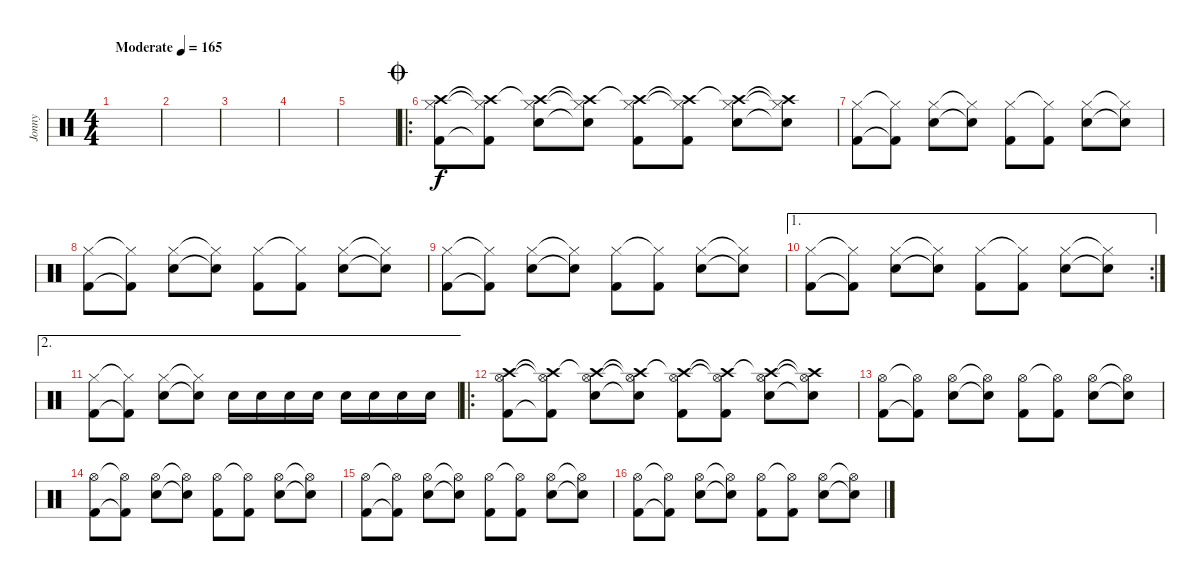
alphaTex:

\track ("Jonny" "Jonny") {instrument percussion}
\staff {score}
\articulation defaults
\ts (4 4)
\tempo (165 "Moderate")
\clef neutral
\ks c
|
|
|
|
|
\ro
\jump coda
("Crash high (hit)" "Hi-Hat (closed)" "Kick (hit) 2").8 ("Crash high (hit)"{t} "Hi-Hat (closed)"{t} "Kick (hit) 2"{t}).8 ("Crash high (hit)"{t} "Hi-Hat (closed)" "Snare (hit) 2").8 ("Crash high (hit)"{t} "Hi-Hat (closed)"{t} "Snare (hit) 2"{t}).8 ("Crash high (hit)"{t} "Hi-Hat (closed)" "Kick (hit) 2").8 ("Crash high (hit)"{t} "Hi-Hat (closed)"{t} "Kick (hit) 2").8 ("Crash high (hit)"{t} "Hi-Hat (closed)" "Snare (hit) 2").8 ("Crash high (hit)"{t} "Hi-Hat (closed)"{t} "Snare (hit) 2"{t}).8 |
("Hi-Hat (closed)" "Kick (hit) 2").8 ("Hi-Hat (closed)"{t} "Kick (hit) 2"{t}).8 ("Hi-Hat (closed)" "Snare (hit) 2").8 ("Hi-Hat (closed)"{t} "Snare (hit) 2"{t}).8 ("Hi-Hat (closed)" "Kick (hit) 2").8 ("Hi-Hat (closed)"{t} "Kick (hit) 2").8 ("Hi-Hat (closed)" "Snare (hit) 2").8 ("Hi-Hat (closed)"{t} "Snare (hit) 2"{t}).8 |
("Hi-Hat (closed)" "Kick (hit) 2").8 ("Hi-Hat (closed)"{t} "Kick (hit) 2"{t}).8 ("Hi-Hat (closed)" "Snare (hit) 2").8 ("Hi-Hat (closed)"{t} "Snare (hit) 2"{t}).8 ("Hi-Hat (closed)" "Kick (hit) 2").8 ("Hi-Hat (closed)"{t} "Kick (hit) 2").8 ("Hi-Hat (closed)" "Snare (hit) 2").8 ("Hi-Hat (closed)"{t} "Snare (hit) 2"{t}).8 |
("Hi-Hat (closed)" "Kick (hit) 2").8 ("Hi-Hat (closed)"{t} "Kick (hit) 2"{t}).8 ("Hi-Hat (closed)" "Snare (hit) 2").8 ("Hi-Hat (closed)"{t} "Snare (hit) 2"{t}).8 ("Hi-Hat (closed)" "Kick (hit) 2").8 ("Hi-Hat (closed)"{t} "Kick (hit) 2").8 ("Hi-Hat (closed)" "Snare (hit) 2").8 ("Hi-Hat (closed)"{t} "Snare (hit) 2"{t}).8 |
\ae 1
\rc 2
("Hi-Hat (closed)" "Kick (hit) 2").8 ("Hi-Hat (closed)"{t} "Kick (hit) 2"{t}).8 ("Hi-Hat (closed)" "Snare (hit) 2").8 ("Hi-Hat (closed)"{t} "Snare (hit) 2"{t}).8 ("Hi-Hat (closed)" "Kick (hit) 2").8 ("Hi-Hat (closed)"{t} "Kick (hit) 2").8 ("Hi-Hat (closed)" "Snare (hit) 2").8 ("Hi-Hat (closed)"{t} "Snare (hit) 2"{t}).8 |
\ae 2
("Hi-Hat (closed)" "Kick (hit) 2").8 ("Hi-Hat (closed)"{t} "Kick (hit) 2"{t}).8 ("Hi-Hat (closed)" "Snare (hit) 2").8 ("Hi-Hat (closed)"{t} "Snare (hit) 2"{t}).8 "Snare (hit) 2".16 "Snare (hit) 2".16 "Snare (hit) 2".16 "Snare (hit) 2".16 "Snare (hit) 2".16 "Snare (hit) 2".16 "Snare (hit) 2".16 "Snare (hit) 2".16 |
\ro
("Crash high (hit)" "Hi-Hat (open)" "Kick (hit) 2").8 ("Crash high (hit)"{t} "Hi-Hat (open)"{t} "Kick (hit) 2"{t}).8 ("Crash high (hit)"{t} "Hi-Hat (open)" "Snare (hit) 2").8 ("Crash high (hit)"{t} "Hi-Hat (open)"{t} "Snare (hit) 2"{t}).8 ("Crash high (hit)"{t} "Hi-Hat (open)" "Kick (hit) 2").8 ("Crash high (hit)"{t} "Hi-Hat (open)"{t} "Kick (hit) 2").8 ("Crash high (hit)"{t} "Hi-Hat (open)" "Snare (hit) 2").8 ("Crash high (hit)"{t} "Hi-Hat (open)"{t} "Snare (hit) 2"{t}).8 |
("Hi-Hat (open)" "Kick (hit) 2").8 ("Hi-Hat (open)"{t} "Kick (hit) 2"{t}).8 ("Hi-Hat (open)" "Snare (hit) 2").8 ("Hi-Hat (open)"{t} "Snare (hit) 2"{t}).8 ("Hi-Hat (open)" "Kick (hit) 2").8 ("Hi-Hat (open)"{t} "Kick (hit) 2").8 ("Hi-Hat (open)" "Snare (hit) 2").8 ("Hi-Hat (open)"{t} "Snare (hit) 2"{t}).8 |
("Hi-Hat (open)" "Kick (hit) 2").8 ("Hi-Hat (open)"{t} "Kick (hit) 2"{t}).8 ("Hi-Hat (open)" "Snare (hit) 2").8 ("Hi-Hat (open)"{t} "Snare (hit) 2"{t}).8 ("Hi-Hat (open)" "Kick (hit) 2").8 ("Hi-Hat (open)"{t} "Kick (hit) 2").8 ("Hi-Hat (open)" "Snare (hit) 2").8 ("Hi-Hat (open)"{t} "Snare (hit) 2"{t}).8 |
("Hi-Hat (open)" "Kick (hit) 2").8 ("Hi-Hat (open)"{t} "Kick (hit) 2"{t}).8 ("Hi-Hat (open)" "Snare (hit) 2").8 ("Hi-Hat (open)"{t} "Snare (hit) 2"{t}).8 ("Hi-Hat (open)" "Kick (hit) 2").8 ("Hi-Hat (open)"{t} "Kick (hit) 2").8 ("Hi-Hat (open)" "Snare (hit) 2").8 ("Hi-Hat (open)"{t} "Snare (hit) 2"{t}).8 |
("Hi-Hat (open)" "Kick (hit) 2").8 ("Hi-Hat (open)"{t} "Kick (hit) 2"{t}).8 ("Hi-Hat (open)" "Snare (hit) 2").8 ("Hi-Hat (open)"{t} "Snare (hit) 2"{t}).8 ("Hi-Hat (open)" "Kick (hit) 2").8 ("Hi-Hat (open)"{t} "Kick (hit) 2").8 ("Hi-Hat (open)" "Snare (hit) 2").8 ("Hi-Hat (open)"{t} "Snare (hit) 2"{t}).8
